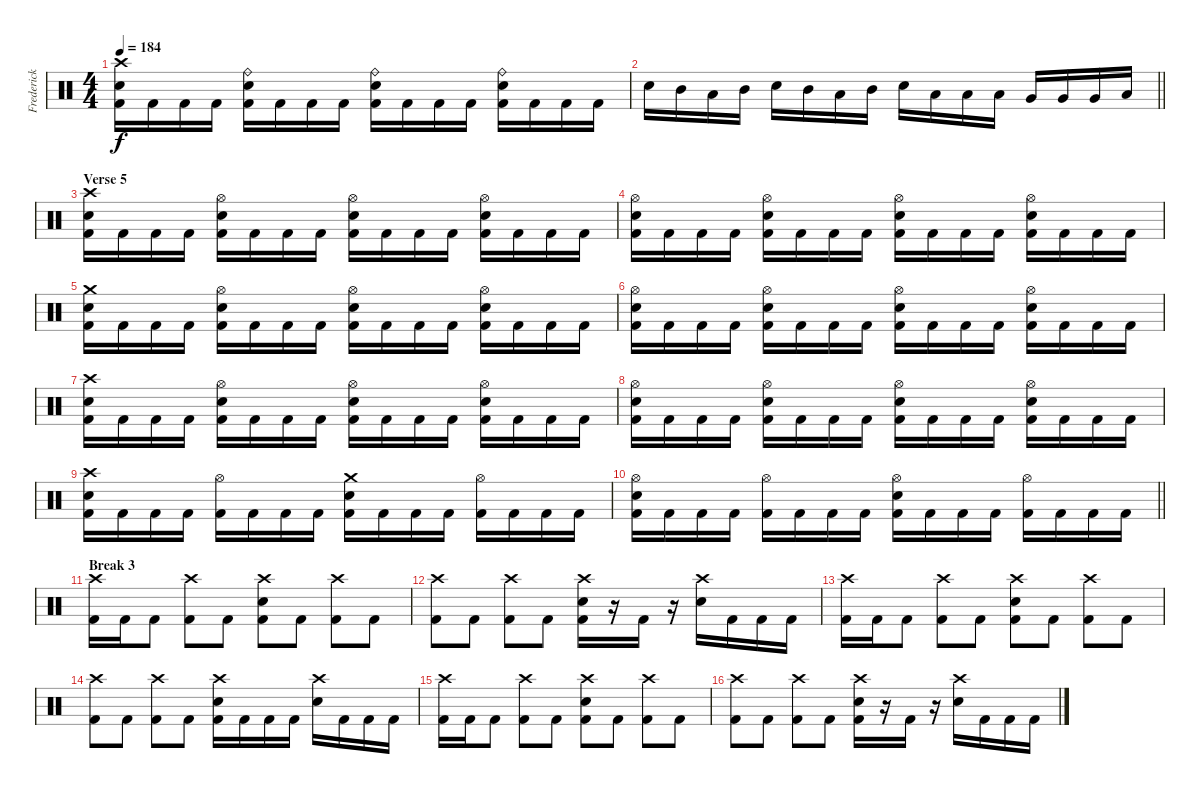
\track ("Frederick Ehmke" "Frederick ") {instrument percussion}
\staff {score}
\articulation defaults
\ts (4 4)
\tempo 184
\clef neutral
\ks c
("Electric Snare (hit)" "Kick (hit) 2" "Crash high (hit)").16{dy f} "Kick (hit) 2".16 "Kick (hit) 2".16 "Kick (hit) 2".16 ("Electric Snare (hit)" "Kick (hit) 2" "Ride (bell)").16 "Kick (hit) 2".16 "Kick (hit) 2".16 "Kick (hit) 2".16 ("Electric Snare (hit)" "Kick (hit) 2" "Ride (bell)").16 "Kick (hit) 2".16 "Kick (hit) 2".16 "Kick (hit) 2".16 ("Electric Snare (hit)" "Kick (hit) 2" "Ride (bell)").16 "Kick (hit) 2".16 "Kick (hit) 2".16 "Kick (hit) 2".16 |
\barLineRight lightlight "Electric Snare (hit)".16 "Mid Tom (hit)".16 "Low Floor Tom (hit)".16 "Mid Tom (hit)".16 "Electric Snare (hit)".16 "Mid Tom (hit)".16 "Low Floor Tom (hit)".16 "Mid Tom (hit)".16 "Electric Snare (hit)".16 "Low Tom (hit)".16 "Low Tom (hit)".16 "Low Tom (hit)".16 "Very Low Tom (hit)".16 "Very Low Tom (hit)".16 "Very Low Tom (hit)".16 "Low Floor Tom (hit)".16
|
\section ("" "Verse 5")
("Electric Snare (hit)" "Kick (hit) 2" "Crash high (hit)").16 "Kick (hit) 2".16 "Kick (hit) 2".16 "Kick (hit) 2".16 ("Electric Snare (hit)" "Kick (hit) 2" "Hi-Hat (open)").16 "Kick (hit) 2".16 "Kick (hit) 2".16 "Kick (hit) 2".16 ("Electric Snare (hit)" "Kick (hit) 2" "Hi-Hat (open)").16 "Kick (hit) 2".16 "Kick (hit) 2".16 "Kick (hit) 2".16 ("Electric Snare (hit)" "Kick (hit) 2" "Hi-Hat (open)").16 "Kick (hit) 2".16 "Kick (hit) 2".16 "Kick (hit) 2".16 |
("Electric Snare (hit)" "Kick (hit) 2" "Hi-Hat (open)").16 "Kick (hit) 2".16 "Kick (hit) 2".16 "Kick (hit) 2".16 ("Electric Snare (hit)" "Kick (hit) 2" "Hi-Hat (open)").16 "Kick (hit) 2".16 "Kick (hit) 2".16 "Kick (hit) 2".16 ("Electric Snare (hit)" "Kick (hit) 2" "Hi-Hat (open)").16 "Kick (hit) 2".16 "Kick (hit) 2".16 "Kick (hit) 2".16 ("Electric Snare (hit)" "Kick (hit) 2" "Hi-Hat (open)").16 "Kick (hit) 2".16 "Kick (hit) 2".16 "Kick (hit) 2".16 |
("Electric Snare (hit)" "Kick (hit) 2" "Crash medium (hit)").16 "Kick (hit) 2".16 "Kick (hit) 2".16 "Kick (hit) 2".16 ("Electric Snare (hit)" "Kick (hit) 2" "Hi-Hat (open)").16 "Kick (hit) 2".16 "Kick (hit) 2".16 "Kick (hit) 2".16 ("Electric Snare (hit)" "Kick (hit) 2" "Hi-Hat (open)").16 "Kick (hit) 2".16 "Kick (hit) 2".16 "Kick (hit) 2".16 ("Electric Snare (hit)" "Kick (hit) 2" "Hi-Hat (open)").16 "Kick (hit) 2".16 "Kick (hit) 2".16 "Kick (hit) 2".16 |
("Electric Snare (hit)" "Kick (hit) 2" "Hi-Hat (open)").16 "Kick (hit) 2".16 "Kick (hit) 2".16 "Kick (hit) 2".16 ("Electric Snare (hit)" "Kick (hit) 2" "Hi-Hat (open)").16 "Kick (hit) 2".16 "Kick (hit) 2".16 "Kick (hit) 2".16 ("Electric Snare (hit)" "Kick (hit) 2" "Hi-Hat (open)").16 "Kick (hit) 2".16 "Kick (hit) 2".16 "Kick (hit) 2".16 ("Electric Snare (hit)" "Kick (hit) 2" "Hi-Hat (open)").16 "Kick (hit) 2".16 "Kick (hit) 2".16 "Kick (hit) 2".16 |
("Electric Snare (hit)" "Kick (hit) 2" "Crash high (hit)").16 "Kick (hit) 2".16 "Kick (hit) 2".16 "Kick (hit) 2".16 ("Electric Snare (hit)" "Kick (hit) 2" "Hi-Hat (open)").16 "Kick (hit) 2".16 "Kick (hit) 2".16 "Kick (hit) 2".16 ("Electric Snare (hit)" "Kick (hit) 2" "Hi-Hat (open)").16 "Kick (hit) 2".16 "Kick (hit) 2".16 "Kick (hit) 2".16 ("Electric Snare (hit)" "Kick (hit) 2" "Hi-Hat (open)").16 "Kick (hit) 2".16 "Kick (hit) 2".16 "Kick (hit) 2".16 |
("Electric Snare (hit)" "Kick (hit) 2" "Hi-Hat (open)").16 "Kick (hit) 2".16 "Kick (hit) 2".16 "Kick (hit) 2".16 ("Electric Snare (hit)" "Kick (hit) 2" "Hi-Hat (open)").16 "Kick (hit) 2".16 "Kick (hit) 2".16 "Kick (hit) 2".16 ("Electric Snare (hit)" "Kick (hit) 2" "Hi-Hat (open)").16 "Kick (hit) 2".16 "Kick (hit) 2".16 "Kick (hit) 2".16 ("Electric Snare (hit)" "Kick (hit) 2" "Hi-Hat (open)").16 "Kick (hit) 2".16 "Kick (hit) 2".16 "Kick (hit) 2".16 |
("Electric Snare (hit)" "Kick (hit) 2" "Crash high (hit)").16 "Kick (hit) 2".16 "Kick (hit) 2".16 "Kick (hit) 2".16 ("Kick (hit) 2" "Hi-Hat (open)").16 "Kick (hit) 2".16 "Kick (hit) 2".16 "Kick (hit) 2".16 ("Electric Snare (hit)" "Kick (hit) 2" "Crash medium (hit)").16 "Kick (hit) 2".16 "Kick (hit) 2".16 "Kick (hit) 2".16 ("Kick (hit) 2" "Hi-Hat (open)").16 "Kick (hit) 2".16 "Kick (hit) 2".16 "Kick (hit) 2".16 |
\barLineRight lightlight
("Electric Snare (hit)" "Kick (hit) 2" "Hi-Hat (open)").16 "Kick (hit) 2".16 "Kick (hit) 2".16 "Kick (hit) 2".16 ("Kick (hit) 2" "Hi-Hat (open)").16 "Kick (hit) 2".16 "Kick (hit) 2".16 "Kick (hit) 2".16 ("Electric Snare (hit)" "Kick (hit) 2" "Hi-Hat (open)").16 "Kick (hit) 2".16 "Kick (hit) 2".16 "Kick (hit) 2".16 ("Kick (hit) 2" "Hi-Hat (open)").16 "Kick (hit) 2".16 "Kick (hit) 2".16 "Kick (hit) 2".16 |
\section ("" "Break 3")
("Kick (hit) 2" "Crash high (hit)").16 "Kick (hit) 2".16 "Kick (hit) 2".8 ("Kick (hit) 2" "Crash high (hit)").8 "Kick (hit) 2".8 ("Electric Snare (hit)" "Kick (hit) 2" "Crash high (hit)").8 "Kick (hit) 2".8 ("Kick (hit) 2" "Crash high (hit)").8 "Kick (hit) 2".8 |
("Kick (hit) 2" "Crash high (hit)").8 "Kick (hit) 2".8 ("Kick (hit) 2" "Crash high (hit)").8 "Kick (hit) 2".8 ("Electric Snare (hit)" "Kick (hit) 2" "Crash high (hit)").16 r.16 "Kick (hit) 2".16 r.16 ("Electric Snare (hit)" "Crash high (hit)").16 "Kick (hit) 2".16 "Kick (hit) 2".16 "Kick (hit) 2".16 |
("Kick (hit) 2" "Crash high (hit)").16 "Kick (hit) 2".16 "Kick (hit) 2".8 ("Kick (hit) 2" "Crash high (hit)").8 "Kick (hit) 2".8 ("Electric Snare (hit)" "Kick (hit) 2" "Crash high (hit)").8 "Kick (hit) 2".8 ("Kick (hit) 2" "Crash high (hit)").8 "Kick (hit) 2".8 |
("Kick (hit) 2" "Crash high (hit)").8 "Kick (hit) 2".8 ("Kick (hit) 2" "Crash high (hit)").8 "Kick (hit) 2".8 ("Electric Snare (hit)" "Kick (hit) 2" "Crash high (hit)").16 "Kick (hit) 2".16 "Kick (hit) 2".16 "Kick (hit) 2".16 ("Electric Snare (hit)" "Crash high (hit)").16 "Kick (hit) 2".16 "Kick (hit) 2".16 "Kick (hit) 2".16 |
("Kick (hit) 2" "Crash high (hit)").16 "Kick (hit) 2".16 "Kick (hit) 2".8 ("Kick (hit) 2" "Crash high (hit)").8 "Kick (hit) 2".8 ("Electric Snare (hit)" "Kick (hit) 2" "Crash high (hit)").8 "Kick (hit) 2".8 ("Kick (hit) 2" "Crash high (hit)").8 "Kick (hit) 2".8 |
("Kick (hit) 2" "Crash high (hit)").8 "Kick (hit) 2".8 ("Kick (hit) 2" "Crash high (hit)").8 "Kick (hit) 2".8 ("Electric Snare (hit)" "Kick (hit) 2" "Crash high (hit)").16 r.16 "Kick (hit) 2".16 r.16 ("Electric Snare (hit)" "Crash high (hit)").16 "Kick (hit) 2".16 "Kick (hit) 2".16 "Kick (hit) 2".16
